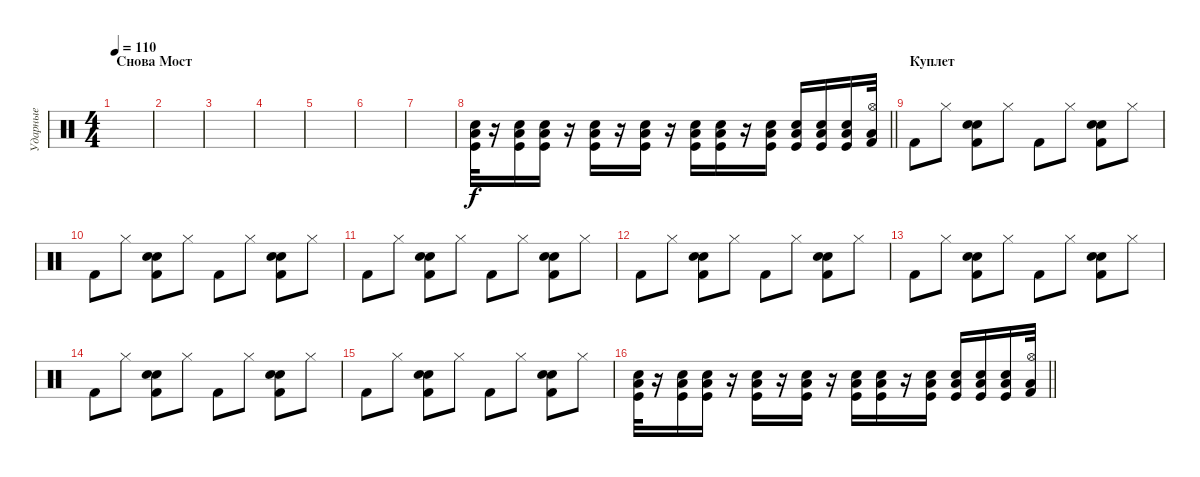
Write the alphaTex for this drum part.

\track ("Ударные" "Ударные") {instrument percussion}
\staff {score}
\articulation defaults
\ts (4 4)
\section ("" "Снова Мост")
\tempo 110
\clef neutral
\ks c
|
|
|
|
|
|
|
\barLineRight lightlight
("Low Floor Tom (hit)" "Kick (hit)" "Electric Snare (hit)").32 r.16 ("Low Floor Tom (hit)" "Kick (hit)" "Electric Snare (hit)").16 ("Low Floor Tom (hit)" "Kick (hit)" "Electric Snare (hit)").16 r.16 ("Low Floor Tom (hit)" "Kick (hit)" "Electric Snare (hit)").16 r.16 ("Low Floor Tom (hit)" "Kick (hit)" "Electric Snare (hit)").16 r.16 ("Low Floor Tom (hit)" "Kick (hit)" "Electric Snare (hit)").16 ("Low Floor Tom (hit)" "Kick (hit)" "Electric Snare (hit)").16 r.16 ("Low Floor Tom (hit)" "Kick (hit)" "Electric Snare (hit)").16 ("Low Floor Tom (hit)" "Kick (hit)" "Electric Snare (hit)").16 ("Low Floor Tom (hit)" "Kick (hit)" "Electric Snare (hit)").16 ("Low Floor Tom (hit)" "Kick (hit)" "Electric Snare (hit)").16 ("Low Floor Tom (hit)" "Hi-Hat (open)" "Kick (hit) 2").32 |
\section ("" "Куплет ")
"Kick (hit) 2".8 "Hi-Hat (closed)".8 ("Hand Clap (hit)" "Kick (hit) 2" "Electric Snare (hit)").8 "Hi-Hat (closed)".8 "Kick (hit) 2".8 "Hi-Hat (closed)".8 ("Hand Clap (hit)" "Kick (hit) 2" "Electric Snare (hit)").8 "Hi-Hat (closed)".8 |
"Kick (hit) 2".8 "Hi-Hat (closed)".8 ("Hand Clap (hit)" "Kick (hit) 2" "Electric Snare (hit)").8 "Hi-Hat (closed)".8 "Kick (hit) 2".8 "Hi-Hat (closed)".8 ("Hand Clap (hit)" "Kick (hit) 2" "Electric Snare (hit)").8 "Hi-Hat (closed)".8 |
"Kick (hit) 2".8 "Hi-Hat (closed)".8 ("Hand Clap (hit)" "Kick (hit) 2" "Electric Snare (hit)").8 "Hi-Hat (closed)".8 "Kick (hit) 2".8 "Hi-Hat (closed)".8 ("Hand Clap (hit)" "Kick (hit) 2" "Electric Snare (hit)").8 "Hi-Hat (closed)".8 |
"Kick (hit) 2".8 "Hi-Hat (closed)".8 ("Hand Clap (hit)" "Kick (hit) 2" "Electric Snare (hit)").8 "Hi-Hat (closed)".8 "Kick (hit) 2".8 "Hi-Hat (closed)".8 ("Hand Clap (hit)" "Kick (hit) 2" "Electric Snare (hit)").8 "Hi-Hat (closed)".8 |
"Kick (hit) 2".8 "Hi-Hat (closed)".8 ("Hand Clap (hit)" "Kick (hit) 2" "Electric Snare (hit)").8 "Hi-Hat (closed)".8 "Kick (hit) 2".8 "Hi-Hat (closed)".8 ("Hand Clap (hit)" "Kick (hit) 2" "Electric Snare (hit)").8 "Hi-Hat (closed)".8 |
"Kick (hit) 2".8 "Hi-Hat (closed)".8 ("Hand Clap (hit)" "Kick (hit) 2" "Electric Snare (hit)").8 "Hi-Hat (closed)".8 "Kick (hit) 2".8 "Hi-Hat (closed)".8 ("Hand Clap (hit)" "Kick (hit) 2" "Electric Snare (hit)").8 "Hi-Hat (closed)".8 |
"Kick (hit) 2".8 "Hi-Hat (closed)".8 ("Hand Clap (hit)" "Kick (hit) 2" "Electric Snare (hit)").8 "Hi-Hat (closed)".8 "Kick (hit) 2".8 "Hi-Hat (closed)".8 ("Hand Clap (hit)" "Kick (hit) 2" "Electric Snare (hit)").8 "Hi-Hat (closed)".8 |
\barLineRight lightlight
("Low Floor Tom (hit)" "Kick (hit)" "Electric Snare (hit)").32 r.16 ("Low Floor Tom (hit)" "Kick (hit)" "Electric Snare (hit)").16 ("Low Floor Tom (hit)" "Kick (hit)" "Electric Snare (hit)").16 r.16 ("Low Floor Tom (hit)" "Kick (hit)" "Electric Snare (hit)").16 r.16 ("Low Floor Tom (hit)" "Kick (hit)" "Electric Snare (hit)").16 r.16 ("Low Floor Tom (hit)" "Kick (hit)" "Electric Snare (hit)").16 ("Low Floor Tom (hit)" "Kick (hit)" "Electric Snare (hit)").16 r.16 ("Low Floor Tom (hit)" "Kick (hit)" "Electric Snare (hit)").16 ("Low Floor Tom (hit)" "Kick (hit)" "Electric Snare (hit)").16 ("Low Floor Tom (hit)" "Kick (hit)" "Electric Snare (hit)").16 ("Low Floor Tom (hit)" "Kick (hit)" "Electric Snare (hit)").16 ("Low Floor Tom (hit)" "Hi-Hat (open)" "Kick (hit) 2").32
